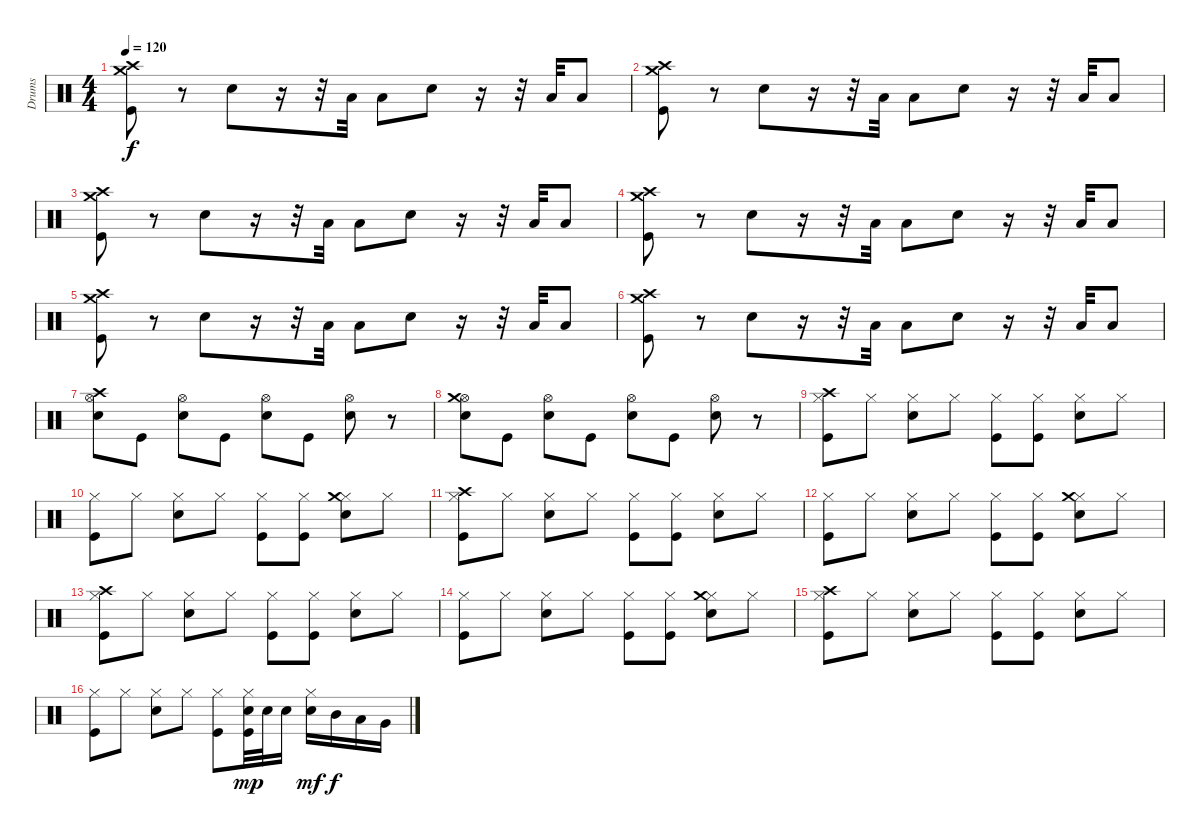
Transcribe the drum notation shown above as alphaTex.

\track ("Drums" "Drums") {instrument percussion}
\staff {score}
\articulation defaults
\ts (4 4)
\tempo 120
\clef neutral
\ks c
("Crash high (hit)" "Crash medium (hit)" "Kick (hit)").8{dy f} r.8 "Snare (hit) 2".8 r.16 r.32 "Low Floor Tom (hit)".32 "Low Floor Tom (hit)".8 "Snare (hit) 2".8 r.16 r.32 "Low Floor Tom (hit)".32 "Low Floor Tom (hit)".8 |
("Crash high (hit)" "Crash medium (hit)" "Kick (hit)").8 r.8 "Snare (hit) 2".8 r.16 r.32 "Low Floor Tom (hit)".32 "Low Floor Tom (hit)".8 "Snare (hit) 2".8 r.16 r.32 "Low Floor Tom (hit)".32 "Low Floor Tom (hit)".8 |
("Crash high (hit)" "Crash medium (hit)" "Kick (hit)").8 r.8 "Snare (hit) 2".8 r.16 r.32 "Low Floor Tom (hit)".32 "Low Floor Tom (hit)".8 "Snare (hit) 2".8 r.16 r.32 "Low Floor Tom (hit)".32 "Low Floor Tom (hit)".8 |
("Crash high (hit)" "Crash medium (hit)" "Kick (hit)").8 r.8 "Snare (hit) 2".8 r.16 r.32 "Low Floor Tom (hit)".32 "Low Floor Tom (hit)".8 "Snare (hit) 2".8 r.16 r.32 "Low Floor Tom (hit)".32 "Low Floor Tom (hit)".8 |
("Crash high (hit)" "Crash medium (hit)" "Kick (hit)").8 r.8 "Snare (hit) 2".8 r.16 r.32 "Low Floor Tom (hit)".32 "Low Floor Tom (hit)".8 "Snare (hit) 2".8 r.16 r.32 "Low Floor Tom (hit)".32 "Low Floor Tom (hit)".8 |
("Crash high (hit)" "Crash medium (hit)" "Kick (hit)").8 r.8 "Snare (hit) 2".8 r.16 r.32 "Low Floor Tom (hit)".32 "Low Floor Tom (hit)".8 "Snare (hit) 2".8 r.16 r.32 "Low Floor Tom (hit)".32 "Low Floor Tom (hit)".8 |
("Hi-Hat (open)" "Crash high (hit)" "Snare (hit) 2").8 "Kick (hit)".8 ("Hi-Hat (open)" "Snare (hit) 2").8 "Kick (hit)".8 ("Hi-Hat (open)" "Snare (hit) 2").8 "Kick (hit)".8 ("Hi-Hat (open)" "Snare (hit) 2").8 r.8 |
("Hi-Hat (open)" "Crash medium (hit)" "Snare (hit) 2").8 "Kick (hit)".8 ("Hi-Hat (open)" "Snare (hit) 2").8 "Kick (hit)".8 ("Hi-Hat (open)" "Snare (hit) 2").8 "Kick (hit)".8 ("Hi-Hat (open)" "Snare (hit) 2").8 r.8 |
("Crash high (hit)" "Hi-Hat (closed)" "Kick (hit)").8 "Hi-Hat (closed)".8 ("Hi-Hat (closed)" "Snare (hit) 2").8 "Hi-Hat (closed)".8 ("Hi-Hat (closed)" "Kick (hit)").8 ("Hi-Hat (closed)" "Kick (hit)").8 ("Hi-Hat (closed)" "Snare (hit) 2").8 "Hi-Hat (closed)".8 |
("Hi-Hat (closed)" "Kick (hit)").8 "Hi-Hat (closed)".8 ("Hi-Hat (closed)" "Snare (hit) 2").8 "Hi-Hat (closed)".8 ("Hi-Hat (closed)" "Kick (hit)").8 ("Hi-Hat (closed)" "Kick (hit)").8 ("Hi-Hat (closed)" "Crash medium (hit)" "Snare (hit) 2").8 "Hi-Hat (closed)".8 |
("Hi-Hat (closed)" "Crash high (hit)" "Kick (hit)").8 "Hi-Hat (closed)".8 ("Hi-Hat (closed)" "Snare (hit) 2").8 "Hi-Hat (closed)".8 ("Hi-Hat (closed)" "Kick (hit)").8 ("Hi-Hat (closed)" "Kick (hit)").8 ("Hi-Hat (closed)" "Snare (hit) 2").8 "Hi-Hat (closed)".8 |
("Hi-Hat (closed)" "Kick (hit)").8 "Hi-Hat (closed)".8 ("Hi-Hat (closed)" "Snare (hit) 2").8 "Hi-Hat (closed)".8 ("Hi-Hat (closed)" "Kick (hit)").8 ("Hi-Hat (closed)" "Kick (hit)").8 ("Hi-Hat (closed)" "Crash medium (hit)" "Snare (hit) 2").8 "Hi-Hat (closed)".8 |
("Hi-Hat (closed)" "Crash high (hit)" "Kick (hit)").8 "Hi-Hat (closed)".8 ("Hi-Hat (closed)" "Snare (hit) 2").8 "Hi-Hat (closed)".8 ("Hi-Hat (closed)" "Kick (hit)").8 ("Hi-Hat (closed)" "Kick (hit)").8 ("Hi-Hat (closed)" "Snare (hit) 2").8 "Hi-Hat (closed)".8 |
("Hi-Hat (closed)" "Kick (hit)").8 "Hi-Hat (closed)".8 ("Hi-Hat (closed)" "Snare (hit) 2").8 "Hi-Hat (closed)".8 ("Hi-Hat (closed)" "Kick (hit)").8 ("Hi-Hat (closed)" "Kick (hit)").8 ("Hi-Hat (closed)" "Crash medium (hit)" "Snare (hit) 2").8 "Hi-Hat (closed)".8 |
("Hi-Hat (closed)" "Crash high (hit)" "Kick (hit)").8 "Hi-Hat (closed)".8 ("Hi-Hat (closed)" "Snare (hit) 2").8 "Hi-Hat (closed)".8 ("Hi-Hat (closed)" "Kick (hit)").8 ("Hi-Hat (closed)" "Kick (hit)").8 ("Hi-Hat (closed)" "Snare (hit) 2").8 "Hi-Hat (closed)".8 |
("Hi-Hat (closed)" "Kick (hit)").8 "Hi-Hat (closed)".8 ("Hi-Hat (closed)" "Snare (hit) 2").8 "Hi-Hat (closed)".8 ("Hi-Hat (closed)" "Kick (hit)").8 ("Hi-Hat (closed)" "Snare (hit) 2" "Kick (hit)").32{dy mp} "Snare (hit) 2".32 "Snare (hit) 2".16 ("Hi-Hat (closed)" "Snare (hit) 2").16{dy mf} "Mid Tom (hit)".16{dy f} "Low Tom (hit)".16 "Very Low Tom (hit)".16
